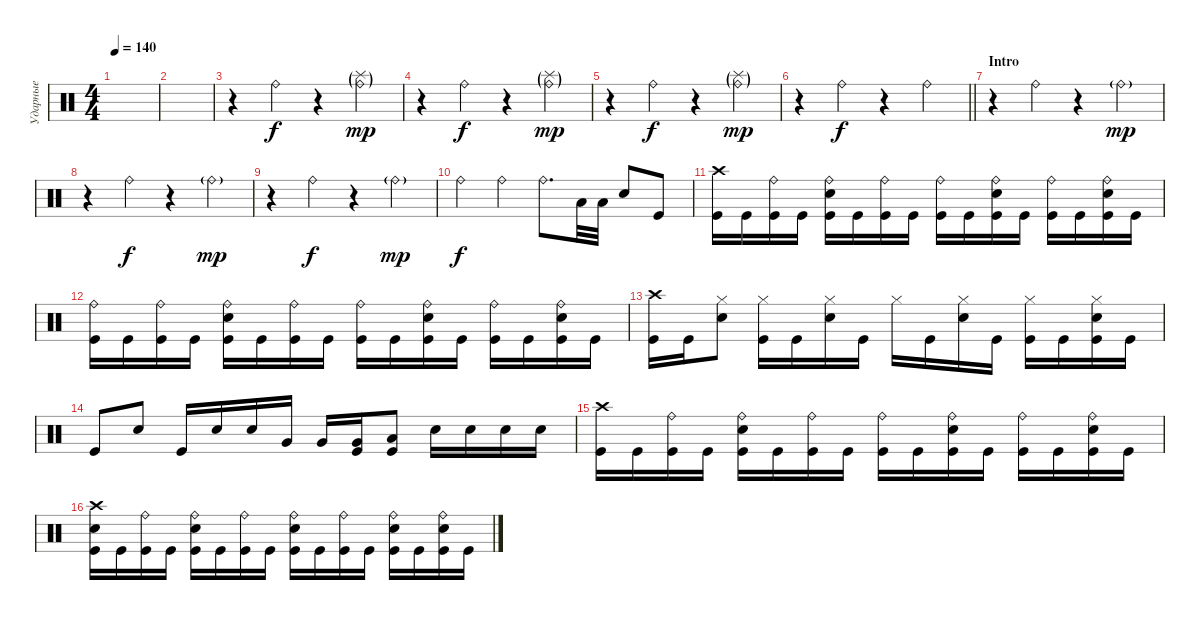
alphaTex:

\track ("Ударные" "Ударные") {instrument percussion}
\staff {score}
\articulation defaults
\ts (4 4)
\tempo 140
\clef neutral
\ks c
|
|
r.4 "Ride (bell)".4 r.4 ("Splash (hit)"{g} "Ride (bell)"{g}).4{dy mp} |
r.4 "Ride (bell)".4{dy f} r.4 ("Splash (hit)"{g} "Ride (bell)"{g}).4{dy mp} |
r.4 "Ride (bell)".4{dy f} r.4 ("Splash (hit)"{g} "Ride (bell)"{g}).4{dy mp} |
\barLineRight lightlight
r.4 "Ride (bell)".4{dy f} r.4 "Ride (bell)".4 |
\section ("" "Intro")
r.4 "Ride (bell)".4 r.4 "Ride (bell)"{g}.4{dy mp} |
r.4 "Ride (bell)".4{dy f} r.4 "Ride (bell)"{g}.4{dy mp} |
r.4 "Ride (bell)".4{dy f} r.4 "Ride (bell)"{g}.4{dy mp} |
"Ride (bell)".4{dy f} "Ride (bell)".4 "Ride (bell)".8{d} "Low Tom (hit)".32 "Low Tom (hit)".32 "Electric Snare (hit)".8 "Kick (hit)".8 |
("Crash high (hit)" "Kick (hit)").16 "Kick (hit)".16 ("Ride (bell)" "Kick (hit)").16 "Kick (hit)".16 ("Ride (bell)" "Electric Snare (hit)" "Kick (hit)").16 "Kick (hit)".16 ("Ride (bell)" "Kick (hit)").16 "Kick (hit)".16 ("Ride (bell)" "Kick (hit)").16 "Kick (hit)".16 ("Ride (bell)" "Electric Snare (hit)" "Kick (hit)").16 "Kick (hit)".16 ("Ride (bell)" "Kick (hit)").16 "Kick (hit)".16 ("Ride (bell)" "Electric Snare (hit)" "Kick (hit)").16 "Kick (hit)".16 |
("Ride (bell)" "Kick (hit)").16 "Kick (hit)".16 ("Ride (bell)" "Kick (hit)").16 "Kick (hit)".16 ("Ride (bell)" "Electric Snare (hit)" "Kick (hit)").16 "Kick (hit)".16 ("Ride (bell)" "Kick (hit)").16 "Kick (hit)".16 ("Ride (bell)" "Kick (hit)").16 "Kick (hit)".16 ("Ride (bell)" "Electric Snare (hit)" "Kick (hit)").16 "Kick (hit)".16 ("Ride (bell)" "Kick (hit)").16 "Kick (hit)".16 ("Ride (bell)" "Electric Snare (hit)" "Kick (hit)").16 "Kick (hit)".16 |
("Crash high (hit)" "Kick (hit)").16 "Kick (hit)".16 ("Hi-Hat (closed)" "Electric Snare (hit)").8 ("Hi-Hat (closed)" "Kick (hit)").16 "Kick (hit)".16 ("Hi-Hat (closed)" "Electric Snare (hit)").16 "Kick (hit)".16 "Hi-Hat (closed)".16 "Kick (hit)".16 ("Hi-Hat (closed)" "Electric Snare (hit)").16 "Kick (hit)".16 ("Hi-Hat (closed)" "Kick (hit)").16 "Kick (hit)".16 ("Hi-Hat (closed)" "Electric Snare (hit)" "Kick (hit)").16 "Kick (hit)".16 |
"Kick (hit)".8 "Electric Snare (hit)".8 "Kick (hit)".16 "Electric Snare (hit)".16 "Electric Snare (hit)".16 "Very Low Tom (hit)".16 "Very Low Tom (hit)".16 ("Very Low Tom (hit)" "Kick (hit)").16 ("Low Tom (hit)" "Kick (hit)").8 "Electric Snare (hit)".16 "Electric Snare (hit)".16 "Electric Snare (hit)".16 "Electric Snare (hit)".16 |
("Crash high (hit)" "Kick (hit)").16 "Kick (hit)".16 ("Ride (bell)" "Kick (hit)").16 "Kick (hit)".16 ("Ride (bell)" "Electric Snare (hit)" "Kick (hit)").16 "Kick (hit)".16 ("Ride (bell)" "Kick (hit)").16 "Kick (hit)".16 ("Ride (bell)" "Kick (hit)").16 "Kick (hit)".16 ("Ride (bell)" "Electric Snare (hit)" "Kick (hit)").16 "Kick (hit)".16 ("Ride (bell)" "Kick (hit)").16 "Kick (hit)".16 ("Ride (bell)" "Electric Snare (hit)" "Kick (hit)").16 "Kick (hit)".16 |
("Crash high (hit)" "Electric Snare (hit)" "Kick (hit)").16 "Kick (hit)".16 ("Ride (bell)" "Kick (hit)").16 "Kick (hit)".16 ("Ride (bell)" "Electric Snare (hit)" "Kick (hit)").16 "Kick (hit)".16 ("Ride (bell)" "Kick (hit)").16 "Kick (hit)".16 ("Ride (bell)" "Electric Snare (hit)" "Kick (hit)").16 "Kick (hit)".16 ("Ride (bell)" "Kick (hit)").16 "Kick (hit)".16 ("Ride (bell)" "Electric Snare (hit)" "Kick (hit)").16 "Kick (hit)".16 ("Ride (bell)" "Electric Snare (hit)" "Kick (hit)").16 "Kick (hit)".16
